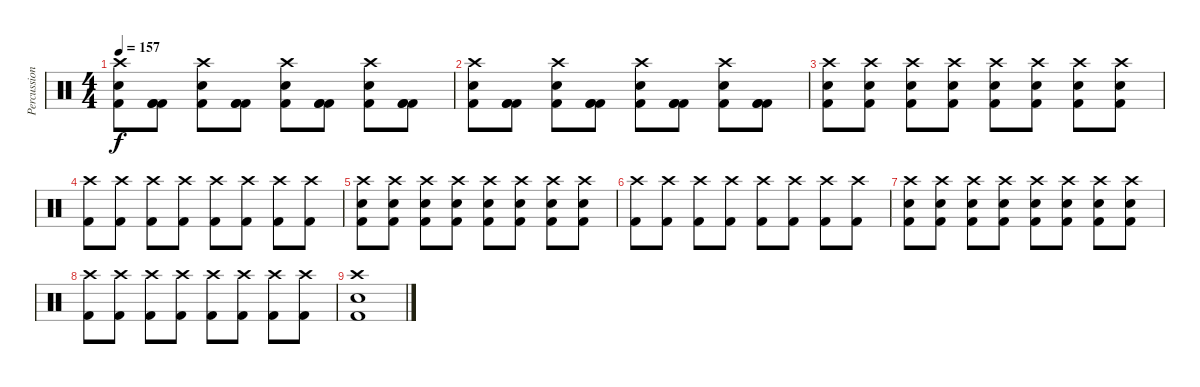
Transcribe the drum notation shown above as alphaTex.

\track ("Percussion" "Percussion") {instrument percussion}
\staff {score}
\articulation defaults
\ts (4 4)
\tempo 157
\clef neutral
\ks c
("Kick (hit) 2" "Electric Snare (hit)" "Crash high (hit)").8{dy f} ("Kick (hit) 2" "Kick (hit) 2" "Kick (hit) 2").8 ("Kick (hit) 2" "Electric Snare (hit)" "Crash high (hit)").8 ("Kick (hit) 2" "Kick (hit) 2" "Kick (hit) 2").8 ("Kick (hit) 2" "Electric Snare (hit)" "Crash high (hit)").8 ("Kick (hit) 2" "Kick (hit) 2" "Kick (hit) 2").8 ("Kick (hit) 2" "Electric Snare (hit)" "Crash high (hit)").8 ("Kick (hit) 2" "Kick (hit) 2" "Kick (hit) 2").8 |
("Kick (hit) 2" "Electric Snare (hit)" "Crash high (hit)").8 ("Kick (hit) 2" "Kick (hit) 2" "Kick (hit) 2").8 ("Kick (hit) 2" "Electric Snare (hit)" "Crash high (hit)").8 ("Kick (hit) 2" "Kick (hit) 2" "Kick (hit) 2").8 ("Kick (hit) 2" "Electric Snare (hit)" "Crash high (hit)").8 ("Kick (hit) 2" "Kick (hit) 2" "Kick (hit) 2").8 ("Kick (hit) 2" "Electric Snare (hit)" "Crash high (hit)").8 ("Kick (hit) 2" "Kick (hit) 2" "Kick (hit) 2").8 |
("Kick (hit) 2" "Electric Snare (hit)" "Crash high (hit)").8 ("Kick (hit) 2" "Electric Snare (hit)" "Crash high (hit)").8 ("Kick (hit) 2" "Electric Snare (hit)" "Crash high (hit)").8 ("Kick (hit) 2" "Electric Snare (hit)" "Crash high (hit)").8 ("Kick (hit) 2" "Electric Snare (hit)" "Crash high (hit)").8 ("Kick (hit) 2" "Electric Snare (hit)" "Crash high (hit)").8 ("Kick (hit) 2" "Electric Snare (hit)" "Crash high (hit)").8 ("Kick (hit) 2" "Electric Snare (hit)" "Crash high (hit)").8 |
("Kick (hit) 2" "Crash high (hit)").8 ("Kick (hit) 2" "Crash high (hit)").8 ("Kick (hit) 2" "Crash high (hit)").8 ("Kick (hit) 2" "Crash high (hit)").8 ("Kick (hit) 2" "Crash high (hit)").8 ("Kick (hit) 2" "Crash high (hit)").8 ("Kick (hit) 2" "Crash high (hit)").8 ("Kick (hit) 2" "Crash high (hit)").8 |
("Kick (hit) 2" "Electric Snare (hit)" "Crash high (hit)").8 ("Kick (hit) 2" "Electric Snare (hit)" "Crash high (hit)").8 ("Kick (hit) 2" "Electric Snare (hit)" "Crash high (hit)").8 ("Kick (hit) 2" "Electric Snare (hit)" "Crash high (hit)").8 ("Kick (hit) 2" "Electric Snare (hit)" "Crash high (hit)").8 ("Kick (hit) 2" "Electric Snare (hit)" "Crash high (hit)").8 ("Kick (hit) 2" "Electric Snare (hit)" "Crash high (hit)").8 ("Kick (hit) 2" "Electric Snare (hit)" "Crash high (hit)").8 |
("Kick (hit) 2" "Crash high (hit)").8 ("Kick (hit) 2" "Crash high (hit)").8 ("Kick (hit) 2" "Crash high (hit)").8 ("Kick (hit) 2" "Crash high (hit)").8 ("Kick (hit) 2" "Crash high (hit)").8 ("Kick (hit) 2" "Crash high (hit)").8 ("Kick (hit) 2" "Crash high (hit)").8 ("Kick (hit) 2" "Crash high (hit)").8 |
("Kick (hit) 2" "Electric Snare (hit)" "Crash high (hit)").8 ("Kick (hit) 2" "Electric Snare (hit)" "Crash high (hit)").8 ("Kick (hit) 2" "Electric Snare (hit)" "Crash high (hit)").8 ("Kick (hit) 2" "Electric Snare (hit)" "Crash high (hit)").8 ("Kick (hit) 2" "Electric Snare (hit)" "Crash high (hit)").8 ("Kick (hit) 2" "Electric Snare (hit)" "Crash high (hit)").8 ("Kick (hit) 2" "Electric Snare (hit)" "Crash high (hit)").8 ("Kick (hit) 2" "Electric Snare (hit)" "Crash high (hit)").8 |
("Kick (hit) 2" "Crash high (hit)").8 ("Kick (hit) 2" "Crash high (hit)").8 ("Kick (hit) 2" "Crash high (hit)").8 ("Kick (hit) 2" "Crash high (hit)").8 ("Kick (hit) 2" "Crash high (hit)").8 ("Kick (hit) 2" "Crash high (hit)").8 ("Kick (hit) 2" "Crash high (hit)").8 ("Kick (hit) 2" "Crash high (hit)").8 |
("Kick (hit) 2" "Electric Snare (hit)" "Crash high (hit)").1
